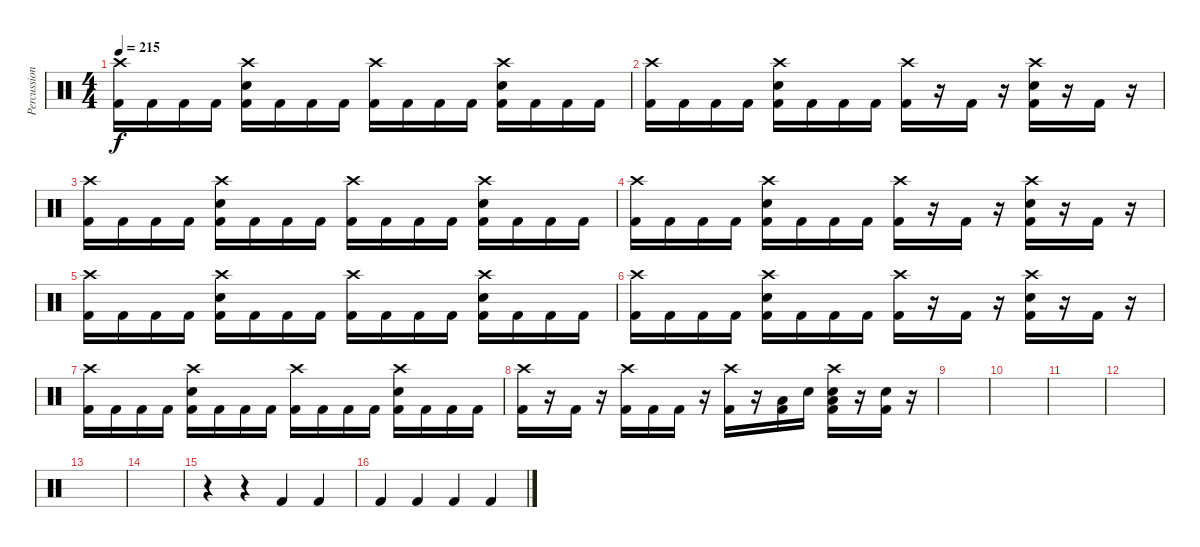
\track ("Percussions" "Percussion") {instrument percussion}
\staff {score}
\articulation defaults
\ts (4 4)
\tempo 215
\clef neutral
\ks c
("Crash high (hit)" "Kick (hit) 2").16{dy f} "Kick (hit) 2".16 "Kick (hit) 2".16 "Kick (hit) 2".16 ("Crash high (hit)" "Electric Snare (hit)" "Kick (hit) 2").16 "Kick (hit) 2".16 "Kick (hit) 2".16 "Kick (hit) 2".16 ("Crash high (hit)" "Kick (hit) 2").16 "Kick (hit) 2".16 "Kick (hit) 2".16 "Kick (hit) 2".16 ("Crash high (hit)" "Electric Snare (hit)" "Kick (hit) 2").16 "Kick (hit) 2".16 "Kick (hit) 2".16 "Kick (hit) 2".16 |
("Crash high (hit)" "Kick (hit) 2").16 "Kick (hit) 2".16 "Kick (hit) 2".16 "Kick (hit) 2".16 ("Crash high (hit)" "Electric Snare (hit)" "Kick (hit) 2").16 "Kick (hit) 2".16 "Kick (hit) 2".16 "Kick (hit) 2".16 ("Crash high (hit)" "Kick (hit) 2").16 r.16 "Kick (hit) 2".16 r.16 ("Crash high (hit)" "Electric Snare (hit)" "Kick (hit) 2").16 r.16 "Kick (hit) 2".16 r.16 |
("Crash high (hit)" "Kick (hit) 2").16 "Kick (hit) 2".16 "Kick (hit) 2".16 "Kick (hit) 2".16 ("Crash high (hit)" "Electric Snare (hit)" "Kick (hit) 2").16 "Kick (hit) 2".16 "Kick (hit) 2".16 "Kick (hit) 2".16 ("Crash high (hit)" "Kick (hit) 2").16 "Kick (hit) 2".16 "Kick (hit) 2".16 "Kick (hit) 2".16 ("Crash high (hit)" "Electric Snare (hit)" "Kick (hit) 2").16 "Kick (hit) 2".16 "Kick (hit) 2".16 "Kick (hit) 2".16 |
("Crash high (hit)" "Kick (hit) 2").16 "Kick (hit) 2".16 "Kick (hit) 2".16 "Kick (hit) 2".16 ("Crash high (hit)" "Electric Snare (hit)" "Kick (hit) 2").16 "Kick (hit) 2".16 "Kick (hit) 2".16 "Kick (hit) 2".16 ("Crash high (hit)" "Kick (hit) 2").16 r.16 "Kick (hit) 2".16 r.16 ("Crash high (hit)" "Electric Snare (hit)" "Kick (hit) 2").16 r.16 "Kick (hit) 2".16 r.16 |
("Crash high (hit)" "Kick (hit) 2").16 "Kick (hit) 2".16 "Kick (hit) 2".16 "Kick (hit) 2".16 ("Crash high (hit)" "Electric Snare (hit)" "Kick (hit) 2").16 "Kick (hit) 2".16 "Kick (hit) 2".16 "Kick (hit) 2".16 ("Crash high (hit)" "Kick (hit) 2").16 "Kick (hit) 2".16 "Kick (hit) 2".16 "Kick (hit) 2".16 ("Crash high (hit)" "Electric Snare (hit)" "Kick (hit) 2").16 "Kick (hit) 2".16 "Kick (hit) 2".16 "Kick (hit) 2".16 |
("Crash high (hit)" "Kick (hit) 2").16 "Kick (hit) 2".16 "Kick (hit) 2".16 "Kick (hit) 2".16 ("Crash high (hit)" "Electric Snare (hit)" "Kick (hit) 2").16 "Kick (hit) 2".16 "Kick (hit) 2".16 "Kick (hit) 2".16 ("Crash high (hit)" "Kick (hit) 2").16 r.16 "Kick (hit) 2".16 r.16 ("Crash high (hit)" "Electric Snare (hit)" "Kick (hit) 2").16 r.16 "Kick (hit) 2".16 r.16 |
("Crash high (hit)" "Kick (hit) 2").16 "Kick (hit) 2".16 "Kick (hit) 2".16 "Kick (hit) 2".16 ("Crash high (hit)" "Electric Snare (hit)" "Kick (hit) 2").16 "Kick (hit) 2".16 "Kick (hit) 2".16 "Kick (hit) 2".16 ("Crash high (hit)" "Kick (hit) 2").16 "Kick (hit) 2".16 "Kick (hit) 2".16 "Kick (hit) 2".16 ("Crash high (hit)" "Electric Snare (hit)" "Kick (hit) 2").16 "Kick (hit) 2".16 "Kick (hit) 2".16 "Kick (hit) 2".16 |
("Crash high (hit)" "Kick (hit) 2").16 r.16 "Kick (hit) 2".16 r.16 ("Crash high (hit)" "Kick (hit) 2").16 "Kick (hit) 2".16 "Kick (hit) 2".16 r.16 ("Crash high (hit)" "Kick (hit) 2").16 r.16 ("Low Tom (hit)" "Kick (hit) 2").16 "Electric Snare (hit)".16 ("Crash high (hit)" "Low Tom (hit)" "Electric Snare (hit)" "Kick (hit) 2").16 r.16 ("Electric Snare (hit)" "Kick (hit) 2").16 r.16 |
|
|
|
|
|
|
r.4 r.4 "Kick (hit) 2".4 "Kick (hit) 2".4 |
"Kick (hit) 2".4 "Kick (hit) 2".4 "Kick (hit) 2".4 "Kick (hit) 2".4
